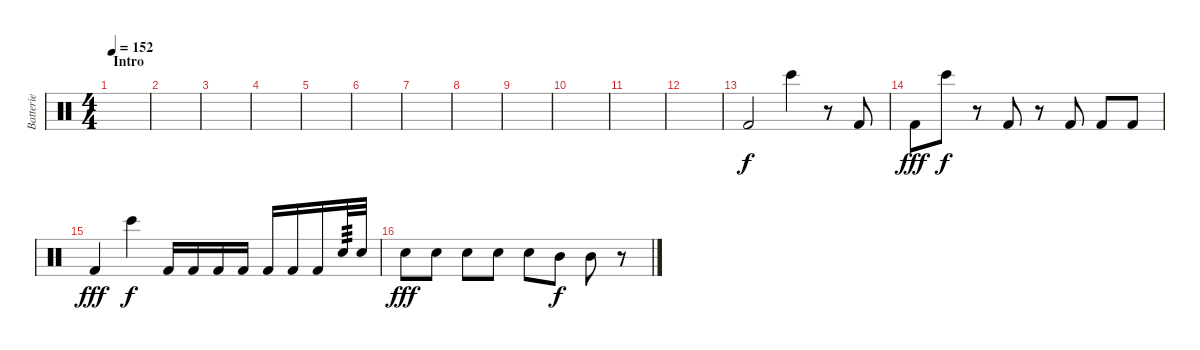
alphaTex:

\track ("Batterie" "Batterie") {instrument percussion}
\staff {score}
\articulation defaults
\ts (4 4)
\section ("" "Intro")
\tempo 152
\clef neutral
\ks c
|
|
|
|
|
|
|
|
|
|
|
|
"Kick (hit) 2".2 "Bongo High (hit)".4{dy f} r.8 "Kick (hit) 2".8 |
"Kick (hit) 2".8{dy fff} "Bongo High (hit)".8{dy f} r.8 "Kick (hit) 2".8 r.8 "Kick (hit) 2".8 "Kick (hit) 2".8 "Kick (hit) 2".8 |
"Kick (hit) 2".4{dy fff} "Bongo High (hit)".4{dy f} "Kick (hit) 2".16 "Kick (hit) 2".16 "Kick (hit) 2".16 "Kick (hit) 2".16 "Kick (hit) 2".16 "Kick (hit) 2".16 "Kick (hit) 2".16 "Electric Snare (hit)".32{tp 3} "Electric Snare (hit)".32 |
"Electric Snare (hit)".8{dy fff} "Electric Snare (hit)".8 "Electric Snare (hit)".8 "Electric Snare (hit)".8 "Electric Snare (hit)".8 "Mid Tom (hit)".8{dy f} "Mid Tom (hit)".8 r.8
